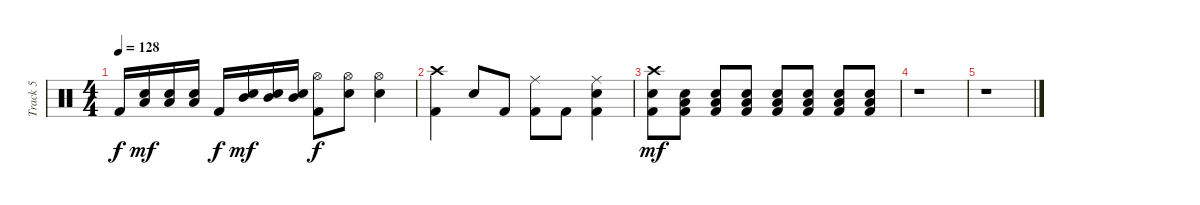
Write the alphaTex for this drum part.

\track ("Track 5" "Track 5") {instrument percussion}
\staff {score}
\articulation defaults
\ts (4 4)
\tempo 128
\clef neutral
\ks c "Kick (hit) 2".16{dy f}
("Electric Snare (hit)" "Low Tom (hit)").16{dy mf} ("Electric Snare (hit)" "Low Tom (hit)").16 ("Electric Snare (hit)" "Low Tom (hit)").16 "Kick (hit) 2".16{dy f} ("Electric Snare (hit)" "Mid Tom (hit)").16{dy mf} ("Electric Snare (hit)" "Mid Tom (hit)").16 ("Electric Snare (hit)" "Mid Tom (hit)").16 ("Hi-Hat (open)" "Kick (hit) 2").8{dy f} ("Hi-Hat (open)" "Electric Snare (hit)").8 ("Hi-Hat (open)" "Electric Snare (hit)").4 |
("Crash high (hit)" "Kick (hit) 2").4 "Electric Snare (hit)".8 "Kick (hit) 2".8 ("Ride (middle)" "Kick (hit) 2").8 "Kick (hit) 2".8 ("Ride (middle)" "Electric Snare (hit)" "Kick (hit) 2").4 |
("Crash high (hit)" "Electric Snare (hit)" "Kick (hit) 2").8{dy mf} ("Electric Snare (hit)" "Low Tom (hit)" "Kick (hit) 2").8 ("Electric Snare (hit)" "Low Tom (hit)" "Kick (hit) 2").8 ("Electric Snare (hit)" "Low Tom (hit)" "Kick (hit) 2").8 ("Electric Snare (hit)" "Low Tom (hit)" "Kick (hit) 2").8 ("Electric Snare (hit)" "Low Tom (hit)" "Kick (hit) 2").8 ("Electric Snare (hit)" "Low Tom (hit)" "Kick (hit) 2").8 ("Electric Snare (hit)" "Low Tom (hit)" "Kick (hit) 2").8 |
r.1 |
r.1
